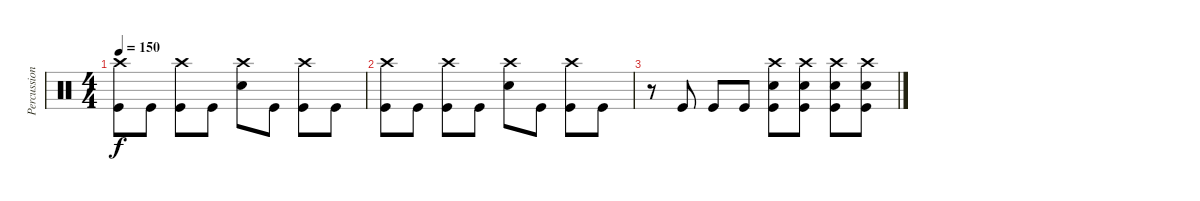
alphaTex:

\track ("Percussion" "Percussion") {instrument percussion}
\staff {score}
\articulation defaults
\ts (4 4)
\tempo 150
\clef neutral
\ks c
("Crash high (hit)" "Kick (hit)").8{dy f} "Kick (hit)".8 ("Crash high (hit)" "Kick (hit)").8 "Kick (hit)".8 ("Crash high (hit)" "Electric Snare (hit)").8 "Kick (hit)".8 ("Crash high (hit)" "Kick (hit)").8 "Kick (hit)".8 |
("Crash high (hit)" "Kick (hit)").8 "Kick (hit)".8 ("Crash high (hit)" "Kick (hit)").8 "Kick (hit)".8 ("Crash high (hit)" "Electric Snare (hit)").8 "Kick (hit)".8 ("Crash high (hit)" "Kick (hit)").8 "Kick (hit)".8 |
r.8 "Kick (hit)".8 "Kick (hit)".8 "Kick (hit)".8 ("Crash high (hit)" "Electric Snare (hit)" "Kick (hit)").8 ("Crash high (hit)" "Electric Snare (hit)" "Kick (hit)").8 ("Crash high (hit)" "Electric Snare (hit)" "Kick (hit)").8 ("Crash high (hit)" "Electric Snare (hit)" "Kick (hit)").8
